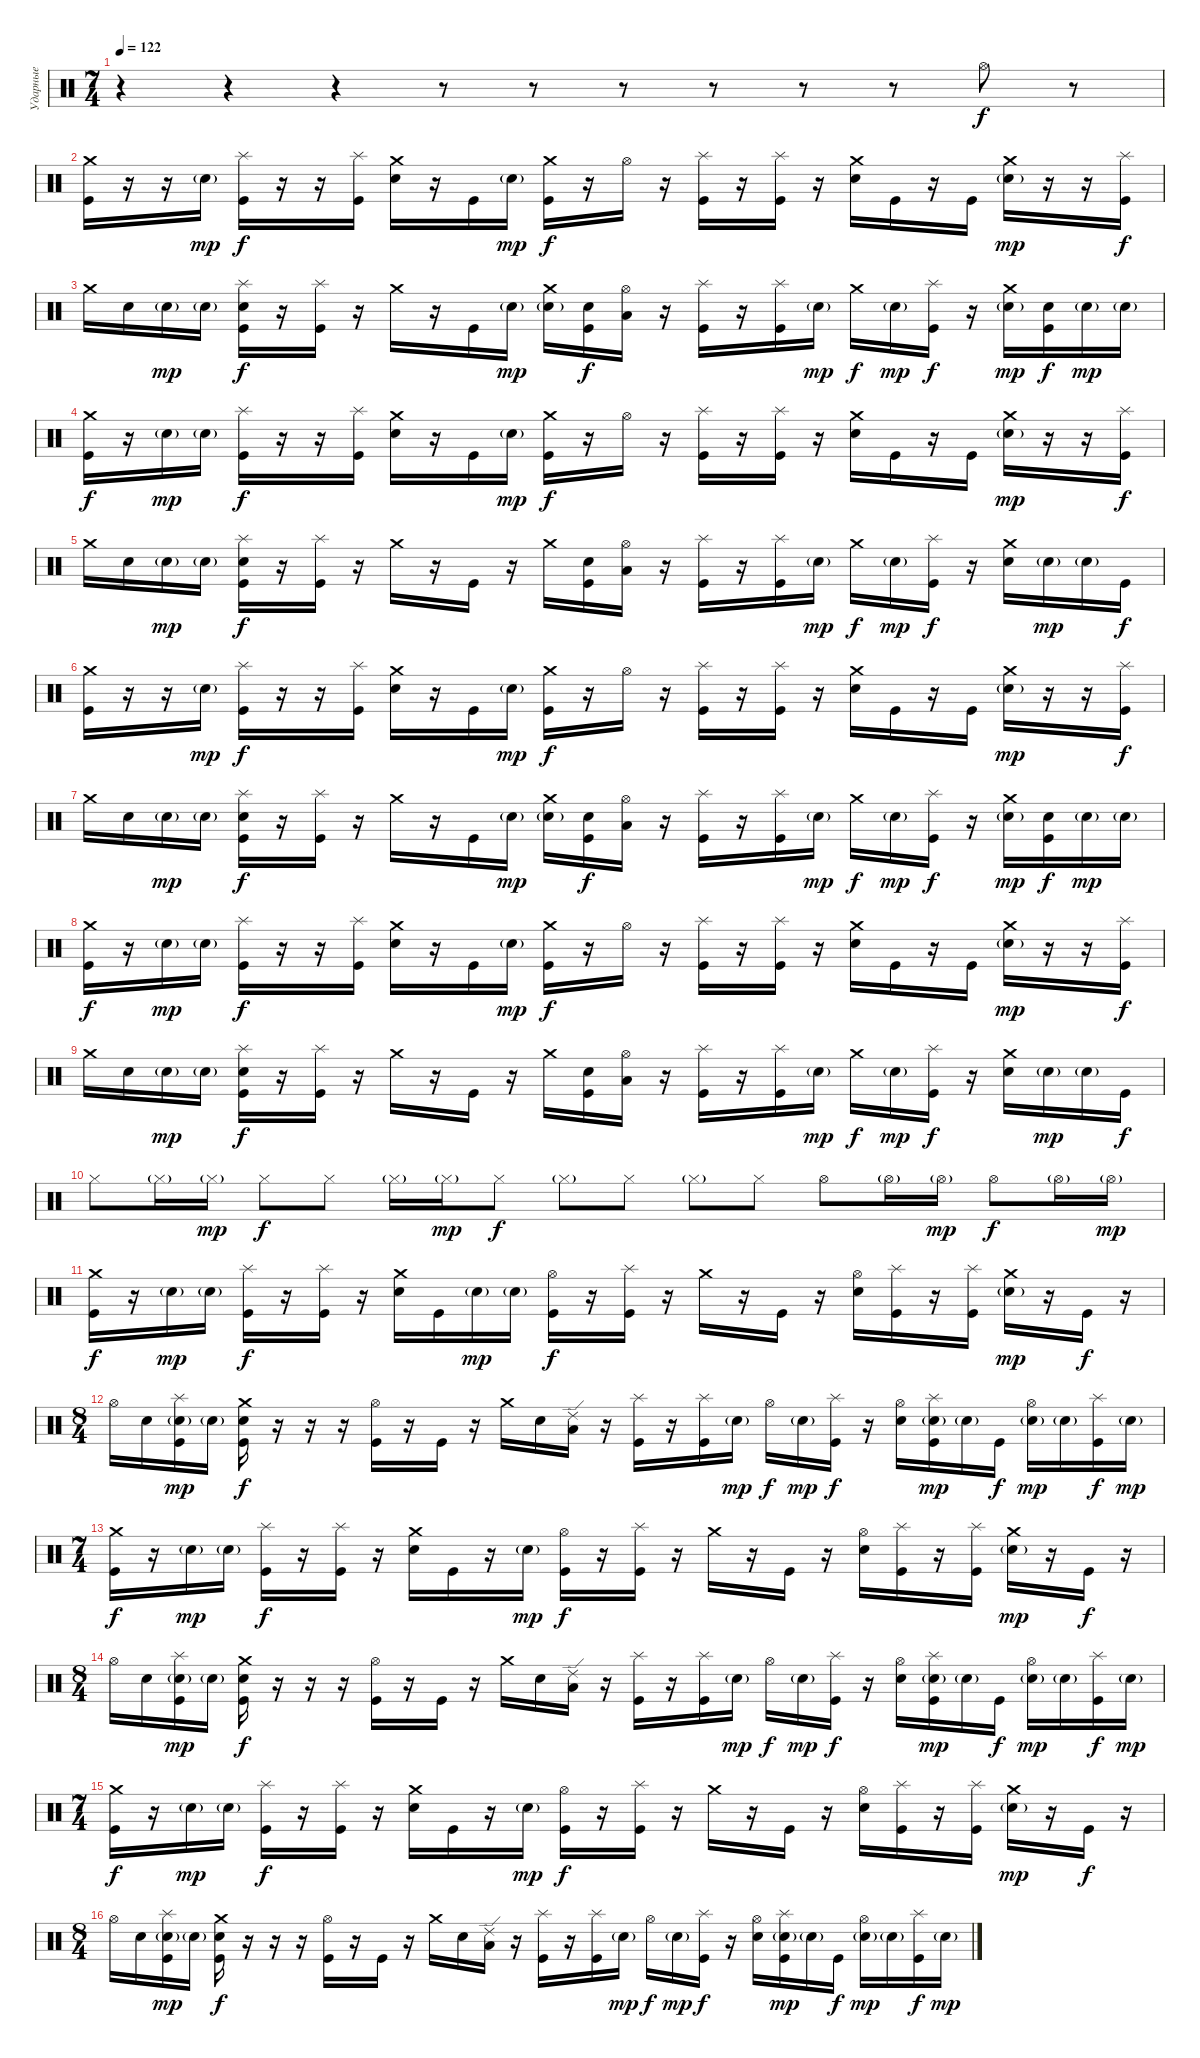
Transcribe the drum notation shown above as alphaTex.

\track ("Ударные" "Ударные") {instrument percussion}
\staff {score}
\articulation defaults
\ts (7 4)
\tempo 122
\clef neutral
\ks c
r.4{dy f} r.4 r.4 r.8 r.8 r.8 r.8 r.8 r.8 "Hi-Hat (open)".8 r.8 |
("Crash medium (hit)" "Kick (hit)").16 r.16 r.16 "Electric Snare (hit)"{g}.16{dy mp} ("Splash (hit)" "Kick (hit)").16{dy f} r.16 r.16 ("Splash (hit)" "Kick (hit)").16 ("Crash medium (hit)" "Electric Snare (hit)").16 r.16 "Kick (hit)".16 "Electric Snare (hit)"{g}.16{dy mp} ("Crash medium (hit)" "Kick (hit)").16{dy f} r.16 "Hi-Hat (open)".16 r.16 ("Splash (hit)" "Kick (hit)").16 r.16 ("Splash (hit)" "Kick (hit)").16 r.16 ("Crash medium (hit)" "Electric Snare (hit)").16 "Kick (hit)".16 r.16 "Kick (hit)".16 ("Crash medium (hit)" "Electric Snare (hit)"{g}).16{dy mp} r.16 r.16 ("Splash (hit)" "Kick (hit)").16{dy f} |
"Crash medium (hit)".16 "Electric Snare (hit)".16 "Electric Snare (hit)"{g}.16{dy mp} "Electric Snare (hit)"{g}.16 ("Splash (hit)" "Electric Snare (hit)" "Kick (hit)").16{dy f} r.16 ("Splash (hit)" "Kick (hit)").16 r.16 "Crash medium (hit)".16 r.16 "Kick (hit)".16 "Electric Snare (hit)"{g}.16{dy mp} ("Crash medium (hit)" "Electric Snare (hit)"{g}).16 ("Electric Snare (hit)" "Kick (hit)").16{dy f} ("Hi-Hat (open)" "Low Tom (hit)").16 r.16 ("Splash (hit)" "Kick (hit)").16 r.16 ("Splash (hit)" "Kick (hit)").16 "Electric Snare (hit)"{g}.16{dy mp} "Crash medium (hit)".16{dy f} "Electric Snare (hit)"{g}.16{dy mp} ("Splash (hit)" "Kick (hit)").16{dy f} r.16 ("Crash medium (hit)" "Electric Snare (hit)"{g}).16{dy mp} ("Electric Snare (hit)" "Kick (hit)").16{dy f} "Electric Snare (hit)"{g}.16{dy mp} "Electric Snare (hit)"{g}.16 |
("Crash medium (hit)" "Kick (hit)").16{dy f} r.16 "Electric Snare (hit)"{g}.16{dy mp} "Electric Snare (hit)"{g}.16 ("Splash (hit)" "Kick (hit)").16{dy f} r.16 r.16 ("Splash (hit)" "Kick (hit)").16 ("Crash medium (hit)" "Electric Snare (hit)").16 r.16 "Kick (hit)".16 "Electric Snare (hit)"{g}.16{dy mp} ("Crash medium (hit)" "Kick (hit)").16{dy f} r.16 "Hi-Hat (open)".16 r.16 ("Splash (hit)" "Kick (hit)").16 r.16 ("Splash (hit)" "Kick (hit)").16 r.16 ("Crash medium (hit)" "Electric Snare (hit)").16 "Kick (hit)".16 r.16 "Kick (hit)".16 ("Crash medium (hit)" "Electric Snare (hit)"{g}).16{dy mp} r.16 r.16 ("Splash (hit)" "Kick (hit)").16{dy f} |
"Crash medium (hit)".16 "Electric Snare (hit)".16 "Electric Snare (hit)"{g}.16{dy mp} "Electric Snare (hit)"{g}.16 ("Splash (hit)" "Electric Snare (hit)" "Kick (hit)").16{dy f} r.16 ("Splash (hit)" "Kick (hit)").16 r.16 "Crash medium (hit)".16 r.16 "Kick (hit)".16 r.16 "Crash medium (hit)".16 ("Electric Snare (hit)" "Kick (hit)").16 ("Hi-Hat (open)" "Low Tom (hit)").16 r.16 ("Splash (hit)" "Kick (hit)").16 r.16 ("Splash (hit)" "Kick (hit)").16 "Electric Snare (hit)"{g}.16{dy mp} "Crash medium (hit)".16{dy f} "Electric Snare (hit)"{g}.16{dy mp} ("Splash (hit)" "Kick (hit)").16{dy f} r.16 ("Crash medium (hit)" "Electric Snare (hit)").16 "Electric Snare (hit)"{g}.16{dy mp} "Electric Snare (hit)"{g}.16 "Kick (hit)".16{dy f} |
("Crash medium (hit)" "Kick (hit)").16 r.16 r.16 "Electric Snare (hit)"{g}.16{dy mp} ("Splash (hit)" "Kick (hit)").16{dy f} r.16 r.16 ("Splash (hit)" "Kick (hit)").16 ("Crash medium (hit)" "Electric Snare (hit)").16 r.16 "Kick (hit)".16 "Electric Snare (hit)"{g}.16{dy mp} ("Crash medium (hit)" "Kick (hit)").16{dy f} r.16 "Hi-Hat (open)".16 r.16 ("Splash (hit)" "Kick (hit)").16 r.16 ("Splash (hit)" "Kick (hit)").16 r.16 ("Crash medium (hit)" "Electric Snare (hit)").16 "Kick (hit)".16 r.16 "Kick (hit)".16 ("Crash medium (hit)" "Electric Snare (hit)"{g}).16{dy mp} r.16 r.16 ("Splash (hit)" "Kick (hit)").16{dy f} |
"Crash medium (hit)".16 "Electric Snare (hit)".16 "Electric Snare (hit)"{g}.16{dy mp} "Electric Snare (hit)"{g}.16 ("Splash (hit)" "Electric Snare (hit)" "Kick (hit)").16{dy f} r.16 ("Splash (hit)" "Kick (hit)").16 r.16 "Crash medium (hit)".16 r.16 "Kick (hit)".16 "Electric Snare (hit)"{g}.16{dy mp} ("Crash medium (hit)" "Electric Snare (hit)"{g}).16 ("Electric Snare (hit)" "Kick (hit)").16{dy f} ("Hi-Hat (open)" "Low Tom (hit)").16 r.16 ("Splash (hit)" "Kick (hit)").16 r.16 ("Splash (hit)" "Kick (hit)").16 "Electric Snare (hit)"{g}.16{dy mp} "Crash medium (hit)".16{dy f} "Electric Snare (hit)"{g}.16{dy mp} ("Splash (hit)" "Kick (hit)").16{dy f} r.16 ("Crash medium (hit)" "Electric Snare (hit)"{g}).16{dy mp} ("Electric Snare (hit)" "Kick (hit)").16{dy f} "Electric Snare (hit)"{g}.16{dy mp} "Electric Snare (hit)"{g}.16 |
("Crash medium (hit)" "Kick (hit)").16{dy f} r.16 "Electric Snare (hit)"{g}.16{dy mp} "Electric Snare (hit)"{g}.16 ("Splash (hit)" "Kick (hit)").16{dy f} r.16 r.16 ("Splash (hit)" "Kick (hit)").16 ("Crash medium (hit)" "Electric Snare (hit)").16 r.16 "Kick (hit)".16 "Electric Snare (hit)"{g}.16{dy mp} ("Crash medium (hit)" "Kick (hit)").16{dy f} r.16 "Hi-Hat (open)".16 r.16 ("Splash (hit)" "Kick (hit)").16 r.16 ("Splash (hit)" "Kick (hit)").16 r.16 ("Crash medium (hit)" "Electric Snare (hit)").16 "Kick (hit)".16 r.16 "Kick (hit)".16 ("Crash medium (hit)" "Electric Snare (hit)"{g}).16{dy mp} r.16 r.16 ("Splash (hit)" "Kick (hit)").16{dy f} |
"Crash medium (hit)".16 "Electric Snare (hit)".16 "Electric Snare (hit)"{g}.16{dy mp} "Electric Snare (hit)"{g}.16 ("Splash (hit)" "Electric Snare (hit)" "Kick (hit)").16{dy f} r.16 ("Splash (hit)" "Kick (hit)").16 r.16 "Crash medium (hit)".16 r.16 "Kick (hit)".16 r.16 "Crash medium (hit)".16 ("Electric Snare (hit)" "Kick (hit)").16 ("Hi-Hat (open)" "Low Tom (hit)").16 r.16 ("Splash (hit)" "Kick (hit)").16 r.16 ("Splash (hit)" "Kick (hit)").16 "Electric Snare (hit)"{g}.16{dy mp} "Crash medium (hit)".16{dy f} "Electric Snare (hit)"{g}.16{dy mp} ("Splash (hit)" "Kick (hit)").16{dy f} r.16 ("Crash medium (hit)" "Electric Snare (hit)").16 "Electric Snare (hit)"{g}.16{dy mp} "Electric Snare (hit)"{g}.16 "Kick (hit)".16{dy f} |
"Hi-Hat (closed)".8 "Hi-Hat (closed)"{g}.16 "Hi-Hat (closed)"{g}.16{dy mp} "Hi-Hat (closed)".8{dy f} "Hi-Hat (closed)".8 "Hi-Hat (closed)"{g}.16 "Hi-Hat (closed)"{g}.16{dy mp} "Hi-Hat (closed)".8{dy f} "Hi-Hat (closed)"{g}.8 "Hi-Hat (closed)".8 "Hi-Hat (closed)"{g}.8 "Hi-Hat (closed)".8 "Hi-Hat (open)".8 "Hi-Hat (open)"{g}.16 "Hi-Hat (open)"{g}.16{dy mp} "Hi-Hat (open)".8{dy f} "Hi-Hat (open)"{g}.16 "Hi-Hat (open)"{g}.16{dy mp} |
("Crash medium (hit)" "Kick (hit)").16{dy f} r.16 "Electric Snare (hit)"{g}.16{dy mp} "Electric Snare (hit)"{g}.16 ("Splash (hit)" "Kick (hit)").16{dy f} r.16 ("Splash (hit)" "Kick (hit)").16 r.16 ("Crash medium (hit)" "Electric Snare (hit)").16 "Kick (hit)".16 "Electric Snare (hit)"{g}.16{dy mp} "Electric Snare (hit)"{g}.16 ("Hi-Hat (open)" "Kick (hit)").16{dy f} r.16 ("Splash (hit)" "Kick (hit)").16 r.16 "Crash medium (hit)".16 r.16 "Kick (hit)".16 r.16 ("Hi-Hat (open)" "Electric Snare (hit)").16 ("Splash (hit)" "Kick (hit)").16 r.16 ("Splash (hit)" "Kick (hit)").16 ("Crash medium (hit)" "Electric Snare (hit)"{g}).16{dy mp} r.16 "Kick (hit)".16{dy f} r.16 |
\ts (8 4)
"Hi-Hat (open)".16 "Electric Snare (hit)".16 ("Splash (hit)" "Electric Snare (hit)"{g} "Kick (hit)").16{dy mp} "Electric Snare (hit)"{g}.16 ("Crash medium (hit)" "Electric Snare (hit)" "Kick (hit)").16{dy f} r.16 r.16 r.16 ("Hi-Hat (open)" "Kick (hit)").16 r.16 "Kick (hit)".16 r.16 "Crash medium (hit)".16 "Electric Snare (hit)".16 ("Ride (edge) 2" "Low Tom (hit)").16 r.16 ("Splash (hit)" "Kick (hit)").16 r.16 ("Splash (hit)" "Kick (hit)").16 "Electric Snare (hit)"{g}.16{dy mp} "Hi-Hat (open)".16{dy f} "Electric Snare (hit)"{g}.16{dy mp} ("Splash (hit)" "Kick (hit)").16{dy f} r.16 ("Hi-Hat (open)" "Electric Snare (hit)").16 ("Splash (hit)" "Electric Snare (hit)"{g} "Kick (hit)").16{dy mp} "Electric Snare (hit)"{g}.16 "Kick (hit)".16{dy f} ("Hi-Hat (open)" "Electric Snare (hit)"{g}).16{dy mp} "Electric Snare (hit)"{g}.16 ("Splash (hit)" "Kick (hit)").16{dy f} "Electric Snare (hit)"{g}.16{dy mp} |
\ts (7 4)
("Crash medium (hit)" "Kick (hit)").16{dy f} r.16 "Electric Snare (hit)"{g}.16{dy mp} "Electric Snare (hit)"{g}.16 ("Splash (hit)" "Kick (hit)").16{dy f} r.16 ("Splash (hit)" "Kick (hit)").16 r.16 ("Crash medium (hit)" "Electric Snare (hit)").16 "Kick (hit)".16 r.16 "Electric Snare (hit)"{g}.16{dy mp} ("Hi-Hat (open)" "Kick (hit)").16{dy f} r.16 ("Splash (hit)" "Kick (hit)").16 r.16 "Crash medium (hit)".16 r.16 "Kick (hit)".16 r.16 ("Hi-Hat (open)" "Electric Snare (hit)").16 ("Splash (hit)" "Kick (hit)").16 r.16 ("Splash (hit)" "Kick (hit)").16 ("Crash medium (hit)" "Electric Snare (hit)"{g}).16{dy mp} r.16 "Kick (hit)".16{dy f} r.16 |
\ts (8 4)
"Hi-Hat (open)".16 "Electric Snare (hit)".16 ("Splash (hit)" "Electric Snare (hit)"{g} "Kick (hit)").16{dy mp} "Electric Snare (hit)"{g}.16 ("Crash medium (hit)" "Electric Snare (hit)" "Kick (hit)").16{dy f} r.16 r.16 r.16 ("Hi-Hat (open)" "Kick (hit)").16 r.16 "Kick (hit)".16 r.16 "Crash medium (hit)".16 "Electric Snare (hit)".16 ("Ride (edge) 2" "Low Tom (hit)").16 r.16 ("Splash (hit)" "Kick (hit)").16 r.16 ("Splash (hit)" "Kick (hit)").16 "Electric Snare (hit)"{g}.16{dy mp} "Hi-Hat (open)".16{dy f} "Electric Snare (hit)"{g}.16{dy mp} ("Splash (hit)" "Kick (hit)").16{dy f} r.16 ("Hi-Hat (open)" "Electric Snare (hit)").16 ("Splash (hit)" "Electric Snare (hit)"{g} "Kick (hit)").16{dy mp} "Electric Snare (hit)"{g}.16 "Kick (hit)".16{dy f} ("Hi-Hat (open)" "Electric Snare (hit)"{g}).16{dy mp} "Electric Snare (hit)"{g}.16 ("Splash (hit)" "Kick (hit)").16{dy f} "Electric Snare (hit)"{g}.16{dy mp} |
\ts (7 4)
("Crash medium (hit)" "Kick (hit)").16{dy f} r.16 "Electric Snare (hit)"{g}.16{dy mp} "Electric Snare (hit)"{g}.16 ("Splash (hit)" "Kick (hit)").16{dy f} r.16 ("Splash (hit)" "Kick (hit)").16 r.16 ("Crash medium (hit)" "Electric Snare (hit)").16 "Kick (hit)".16 r.16 "Electric Snare (hit)"{g}.16{dy mp} ("Hi-Hat (open)" "Kick (hit)").16{dy f} r.16 ("Splash (hit)" "Kick (hit)").16 r.16 "Crash medium (hit)".16 r.16 "Kick (hit)".16 r.16 ("Hi-Hat (open)" "Electric Snare (hit)").16 ("Splash (hit)" "Kick (hit)").16 r.16 ("Splash (hit)" "Kick (hit)").16 ("Crash medium (hit)" "Electric Snare (hit)"{g}).16{dy mp} r.16 "Kick (hit)".16{dy f} r.16 |
\ts (8 4)
"Hi-Hat (open)".16 "Electric Snare (hit)".16 ("Splash (hit)" "Electric Snare (hit)"{g} "Kick (hit)").16{dy mp} "Electric Snare (hit)"{g}.16 ("Crash medium (hit)" "Electric Snare (hit)" "Kick (hit)").16{dy f} r.16 r.16 r.16 ("Hi-Hat (open)" "Kick (hit)").16 r.16 "Kick (hit)".16 r.16 "Crash medium (hit)".16 "Electric Snare (hit)".16 ("Ride (edge) 2" "Low Tom (hit)").16 r.16 ("Splash (hit)" "Kick (hit)").16 r.16 ("Splash (hit)" "Kick (hit)").16 "Electric Snare (hit)"{g}.16{dy mp} "Hi-Hat (open)".16{dy f} "Electric Snare (hit)"{g}.16{dy mp} ("Splash (hit)" "Kick (hit)").16{dy f} r.16 ("Hi-Hat (open)" "Electric Snare (hit)").16 ("Splash (hit)" "Electric Snare (hit)"{g} "Kick (hit)").16{dy mp} "Electric Snare (hit)"{g}.16 "Kick (hit)".16{dy f} ("Hi-Hat (open)" "Electric Snare (hit)"{g}).16{dy mp} "Electric Snare (hit)"{g}.16 ("Splash (hit)" "Kick (hit)").16{dy f} "Electric Snare (hit)"{g}.16{dy mp}
